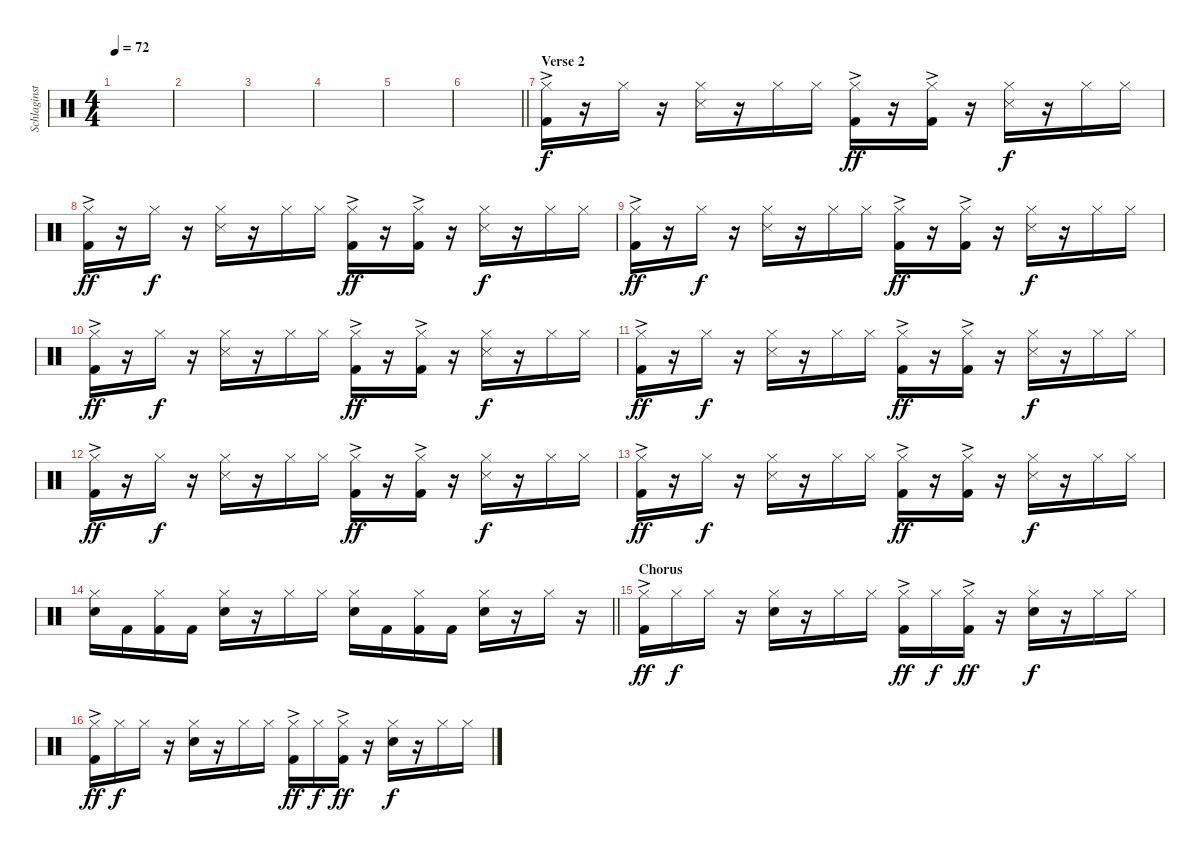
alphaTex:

\track ("Schlaginstrumente - Auswahl" "Schlaginst") {instrument percussion}
\staff {score}
\articulation defaults
\ts (4 4)
\tempo 72
\clef neutral
\ks c
|
|
|
|
|
\barLineRight lightlight
|
\section ("" "Verse 2")
("Hi-Hat (closed)" "Kick (hit) 2"{ac}).16 r.16 "Hi-Hat (closed)".16{dy f} r.16 ("Snare (side stick) 3" "Hi-Hat (closed)").16 r.16 "Hi-Hat (closed)".16 "Hi-Hat (closed)".16 ("Hi-Hat (closed)" "Kick (hit) 2"{ac}).16{dy ff} r.16 ("Hi-Hat (closed)" "Kick (hit) 2"{ac}).16 r.16 ("Snare (side stick) 3" "Hi-Hat (closed)").16{dy f} r.16 "Hi-Hat (closed)".16 "Hi-Hat (closed)".16 |
("Hi-Hat (closed)" "Kick (hit) 2"{ac}).16{dy ff} r.16 "Hi-Hat (closed)".16{dy f} r.16 ("Snare (side stick) 3" "Hi-Hat (closed)").16 r.16 "Hi-Hat (closed)".16 "Hi-Hat (closed)".16 ("Hi-Hat (closed)" "Kick (hit) 2"{ac}).16{dy ff} r.16 ("Hi-Hat (closed)" "Kick (hit) 2"{ac}).16 r.16 ("Snare (side stick) 3" "Hi-Hat (closed)").16{dy f} r.16 "Hi-Hat (closed)".16 "Hi-Hat (closed)".16 |
("Hi-Hat (closed)" "Kick (hit) 2"{ac}).16{dy ff} r.16 "Hi-Hat (closed)".16{dy f} r.16 ("Snare (side stick) 3" "Hi-Hat (closed)").16 r.16 "Hi-Hat (closed)".16 "Hi-Hat (closed)".16 ("Hi-Hat (closed)" "Kick (hit) 2"{ac}).16{dy ff} r.16 ("Hi-Hat (closed)" "Kick (hit) 2"{ac}).16 r.16 ("Snare (side stick) 3" "Hi-Hat (closed)").16{dy f} r.16 "Hi-Hat (closed)".16 "Hi-Hat (closed)".16 |
("Hi-Hat (closed)" "Kick (hit) 2"{ac}).16{dy ff} r.16 "Hi-Hat (closed)".16{dy f} r.16 ("Snare (side stick) 3" "Hi-Hat (closed)").16 r.16 "Hi-Hat (closed)".16 "Hi-Hat (closed)".16 ("Hi-Hat (closed)" "Kick (hit) 2"{ac}).16{dy ff} r.16 ("Hi-Hat (closed)" "Kick (hit) 2"{ac}).16 r.16 ("Snare (side stick) 3" "Hi-Hat (closed)").16{dy f} r.16 "Hi-Hat (closed)".16 "Hi-Hat (closed)".16 |
("Hi-Hat (closed)" "Kick (hit) 2"{ac}).16{dy ff} r.16 "Hi-Hat (closed)".16{dy f} r.16 ("Snare (side stick) 3" "Hi-Hat (closed)").16 r.16 "Hi-Hat (closed)".16 "Hi-Hat (closed)".16 ("Hi-Hat (closed)" "Kick (hit) 2"{ac}).16{dy ff} r.16 ("Hi-Hat (closed)" "Kick (hit) 2"{ac}).16 r.16 ("Snare (side stick) 3" "Hi-Hat (closed)").16{dy f} r.16 "Hi-Hat (closed)".16 "Hi-Hat (closed)".16 |
("Hi-Hat (closed)" "Kick (hit) 2"{ac}).16{dy ff} r.16 "Hi-Hat (closed)".16{dy f} r.16 ("Snare (side stick) 3" "Hi-Hat (closed)").16 r.16 "Hi-Hat (closed)".16 "Hi-Hat (closed)".16 ("Hi-Hat (closed)" "Kick (hit) 2"{ac}).16{dy ff} r.16 ("Hi-Hat (closed)" "Kick (hit) 2"{ac}).16 r.16 ("Snare (side stick) 3" "Hi-Hat (closed)").16{dy f} r.16 "Hi-Hat (closed)".16 "Hi-Hat (closed)".16 |
("Hi-Hat (closed)" "Kick (hit) 2"{ac}).16{dy ff} r.16 "Hi-Hat (closed)".16{dy f} r.16 ("Snare (side stick) 3" "Hi-Hat (closed)").16 r.16 "Hi-Hat (closed)".16 "Hi-Hat (closed)".16 ("Hi-Hat (closed)" "Kick (hit) 2"{ac}).16{dy ff} r.16 ("Hi-Hat (closed)" "Kick (hit) 2"{ac}).16 r.16 ("Snare (side stick) 3" "Hi-Hat (closed)").16{dy f} r.16 "Hi-Hat (closed)".16 "Hi-Hat (closed)".16 |
\barLineRight lightlight
("Hi-Hat (closed)" "Snare (hit) 2").16 "Kick (hit) 2".16 ("Hi-Hat (closed)" "Kick (hit) 2").16 "Kick (hit) 2".16 ("Hi-Hat (closed)" "Snare (hit) 2").16 r.16 "Hi-Hat (closed)".16 "Hi-Hat (closed)".16 ("Hi-Hat (closed)" "Snare (hit) 2").16 "Kick (hit) 2".16 ("Hi-Hat (closed)" "Kick (hit) 2").16 "Kick (hit) 2".16 ("Hi-Hat (closed)" "Snare (hit) 2").16 r.16 "Hi-Hat (closed)".16 r.16 |
\section ("" "Chorus")
("Hi-Hat (closed)" "Kick (hit) 2"{ac}).16{dy ff} "Hi-Hat (closed)".16{dy f} "Hi-Hat (closed)".16 r.16 ("Snare (hit) 2" "Hi-Hat (closed)").16 r.16 "Hi-Hat (closed)".16 "Hi-Hat (closed)".16 ("Hi-Hat (closed)" "Kick (hit) 2"{ac}).16{dy ff} "Hi-Hat (closed)".16{dy f} ("Hi-Hat (closed)" "Kick (hit) 2"{ac}).16{dy ff} r.16 ("Snare (hit) 2" "Hi-Hat (closed)").16{dy f} r.16 "Hi-Hat (closed)".16 "Hi-Hat (closed)".16 |
("Hi-Hat (closed)" "Kick (hit) 2"{ac}).16{dy ff} "Hi-Hat (closed)".16{dy f} "Hi-Hat (closed)".16 r.16 ("Snare (hit) 2" "Hi-Hat (closed)").16 r.16 "Hi-Hat (closed)".16 "Hi-Hat (closed)".16 ("Hi-Hat (closed)" "Kick (hit) 2"{ac}).16{dy ff} "Hi-Hat (closed)".16{dy f} ("Hi-Hat (closed)" "Kick (hit) 2"{ac}).16{dy ff} r.16 ("Snare (hit) 2" "Hi-Hat (closed)").16{dy f} r.16 "Hi-Hat (closed)".16 "Hi-Hat (closed)".16
